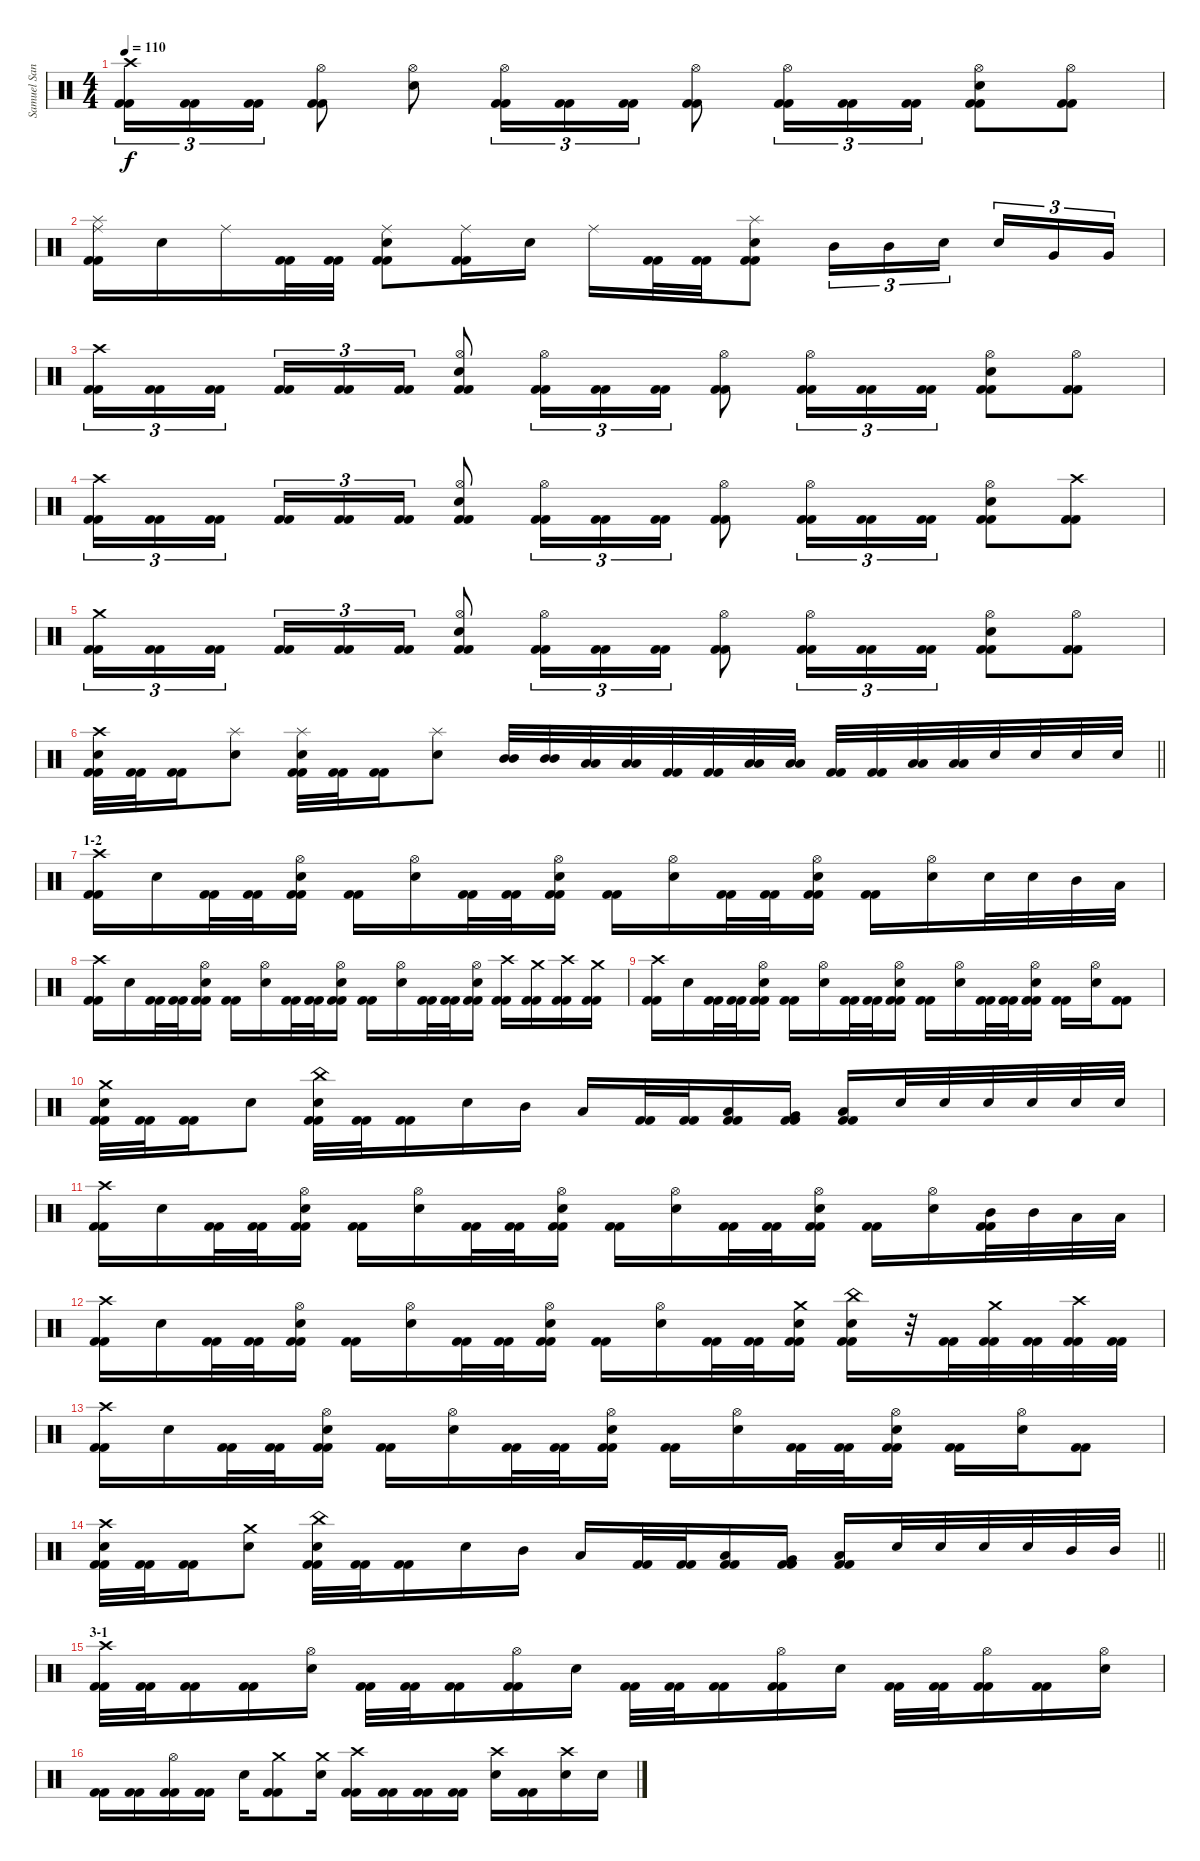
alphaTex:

\track ("Samuel Santiago" "Samuel San") {instrument percussion}
\staff {score}
\articulation defaults
\ts (4 4)
\tempo 110
\clef neutral
\ks c
("Crash high (hit)" "Kick (hit) 2" "Kick (hit) 2").16{tu (3 2) dy f} ("Kick (hit) 2" "Kick (hit) 2").16{tu (3 2)} ("Kick (hit) 2" "Kick (hit) 2").16{tu (3 2)} ("Hi-Hat (open)" "Kick (hit) 2" "Kick (hit) 2").8 ("Hi-Hat (open)" "Electric Snare (hit)").8 ("Hi-Hat (open)" "Kick (hit) 2" "Kick (hit) 2").16{tu (3 2)} ("Kick (hit) 2" "Kick (hit) 2").16{tu (3 2)} ("Kick (hit) 2" "Kick (hit) 2").16{tu (3 2)} ("Hi-Hat (open)" "Kick (hit) 2" "Kick (hit) 2").8 ("Hi-Hat (open)" "Kick (hit) 2" "Kick (hit) 2").16{tu (3 2)} ("Kick (hit) 2" "Kick (hit) 2").16{tu (3 2)} ("Kick (hit) 2" "Kick (hit) 2").16{tu (3 2)} ("Hi-Hat (open)" "Electric Snare (hit)" "Kick (hit) 2" "Kick (hit) 2").8 ("Hi-Hat (open)" "Kick (hit) 2" "Kick (hit) 2").8 |
("Ride (middle)" "Splash (hit)" "Kick (hit) 2" "Kick (hit) 2").16 "Electric Snare (hit)".16 "Ride (middle)".16 ("Kick (hit) 2" "Kick (hit) 2").32 ("Kick (hit) 2" "Kick (hit) 2").32 ("Ride (middle)" "Electric Snare (hit)" "Kick (hit) 2" "Kick (hit) 2").8 ("Ride (middle)" "Kick (hit) 2" "Kick (hit) 2").16 "Electric Snare (hit)".16 "Ride (middle)".16 ("Kick (hit) 2" "Kick (hit) 2").32 ("Kick (hit) 2" "Kick (hit) 2").32 ("Splash (hit)" "Electric Snare (hit)" "Kick (hit) 2" "Kick (hit) 2").8 "Mid Tom (hit)".16{tu (3 2)} "Mid Tom (hit)".16{tu (3 2)} "Electric Snare (hit)".16{tu (3 2) beam splitsecondary} "Electric Snare (hit)".16{tu (3 2)} "Very Low Tom (hit)".16{tu (3 2)} "Very Low Tom (hit)".16{tu (3 2)} |
("Crash high (hit)" "Kick (hit) 2" "Kick (hit) 2").16{tu (3 2)} ("Kick (hit) 2" "Kick (hit) 2").16{tu (3 2)} ("Kick (hit) 2" "Kick (hit) 2").16{tu (3 2) beam splitsecondary} ("Kick (hit) 2" "Kick (hit) 2").16{tu (3 2)} ("Kick (hit) 2" "Kick (hit) 2").16{tu (3 2)} ("Kick (hit) 2" "Kick (hit) 2").16{tu (3 2)} ("Hi-Hat (open)" "Electric Snare (hit)" "Kick (hit) 2" "Kick (hit) 2").8 ("Hi-Hat (open)" "Kick (hit) 2" "Kick (hit) 2").16{tu (3 2)} ("Kick (hit) 2" "Kick (hit) 2").16{tu (3 2)} ("Kick (hit) 2" "Kick (hit) 2").16{tu (3 2)} ("Hi-Hat (open)" "Kick (hit) 2" "Kick (hit) 2").8 ("Hi-Hat (open)" "Kick (hit) 2" "Kick (hit) 2").16{tu (3 2)} ("Kick (hit) 2" "Kick (hit) 2").16{tu (3 2)} ("Kick (hit) 2" "Kick (hit) 2").16{tu (3 2)} ("Hi-Hat (open)" "Electric Snare (hit)" "Kick (hit) 2" "Kick (hit) 2").8 ("Hi-Hat (open)" "Kick (hit) 2" "Kick (hit) 2").8 |
("Crash high (hit)" "Kick (hit) 2" "Kick (hit) 2").16{tu (3 2)} ("Kick (hit) 2" "Kick (hit) 2").16{tu (3 2)} ("Kick (hit) 2" "Kick (hit) 2").16{tu (3 2) beam splitsecondary} ("Kick (hit) 2" "Kick (hit) 2").16{tu (3 2)} ("Kick (hit) 2" "Kick (hit) 2").16{tu (3 2)} ("Kick (hit) 2" "Kick (hit) 2").16{tu (3 2)} ("Hi-Hat (open)" "Electric Snare (hit)" "Kick (hit) 2" "Kick (hit) 2").8 ("Hi-Hat (open)" "Kick (hit) 2" "Kick (hit) 2").16{tu (3 2)} ("Kick (hit) 2" "Kick (hit) 2").16{tu (3 2)} ("Kick (hit) 2" "Kick (hit) 2").16{tu (3 2)} ("Hi-Hat (open)" "Kick (hit) 2" "Kick (hit) 2").8 ("Hi-Hat (open)" "Kick (hit) 2" "Kick (hit) 2").16{tu (3 2)} ("Kick (hit) 2" "Kick (hit) 2").16{tu (3 2)} ("Kick (hit) 2" "Kick (hit) 2").16{tu (3 2)} ("Hi-Hat (open)" "Electric Snare (hit)" "Kick (hit) 2" "Kick (hit) 2").8 ("Crash high (hit)" "Kick (hit) 2" "Kick (hit) 2").8 |
("Crash medium (hit)" "Kick (hit) 2" "Kick (hit) 2").16{tu (3 2)} ("Kick (hit) 2" "Kick (hit) 2").16{tu (3 2)} ("Kick (hit) 2" "Kick (hit) 2").16{tu (3 2) beam splitsecondary} ("Kick (hit) 2" "Kick (hit) 2").16{tu (3 2)} ("Kick (hit) 2" "Kick (hit) 2").16{tu (3 2)} ("Kick (hit) 2" "Kick (hit) 2").16{tu (3 2)} ("Hi-Hat (open)" "Electric Snare (hit)" "Kick (hit) 2" "Kick (hit) 2").8 ("Hi-Hat (open)" "Kick (hit) 2" "Kick (hit) 2").16{tu (3 2)} ("Kick (hit) 2" "Kick (hit) 2").16{tu (3 2)} ("Kick (hit) 2" "Kick (hit) 2").16{tu (3 2)} ("Hi-Hat (open)" "Kick (hit) 2" "Kick (hit) 2").8 ("Hi-Hat (open)" "Kick (hit) 2" "Kick (hit) 2").16{tu (3 2)} ("Kick (hit) 2" "Kick (hit) 2").16{tu (3 2)} ("Kick (hit) 2" "Kick (hit) 2").16{tu (3 2)} ("Hi-Hat (open)" "Electric Snare (hit)" "Kick (hit) 2" "Kick (hit) 2").8 ("Hi-Hat (open)" "Kick (hit) 2" "Kick (hit) 2").8 |
\barLineRight lightlight
("Crash high (hit)" "Electric Snare (hit)" "Kick (hit) 2" "Kick (hit) 2").32 ("Kick (hit) 2" "Kick (hit) 2").32 ("Kick (hit) 2" "Kick (hit) 2").16 ("Splash (hit)" "Electric Snare (hit)").8 ("Splash (hit)" "Electric Snare (hit)" "Kick (hit) 2" "Kick (hit) 2").32 ("Kick (hit) 2" "Kick (hit) 2").32 ("Kick (hit) 2" "Kick (hit) 2").16 ("Splash (hit)" "Electric Snare (hit)").8 ("Mid Tom (hit)" "Mid Tom (hit)").32 ("Mid Tom (hit)" "Mid Tom (hit)").32 ("Low Tom (hit)" "Low Tom (hit)").32 ("Low Tom (hit)" "Low Tom (hit)").32 ("Kick (hit) 2" "Kick (hit) 2").32 ("Kick (hit) 2" "Kick (hit) 2").32 ("Low Tom (hit)" "Low Tom (hit)").32 ("Low Tom (hit)" "Low Tom (hit)").32 ("Kick (hit) 2" "Kick (hit) 2").32 ("Kick (hit) 2" "Kick (hit) 2").32 ("Low Tom (hit)" "Low Tom (hit)").32 ("Low Tom (hit)" "Low Tom (hit)").32 "Electric Snare (hit)".32 "Electric Snare (hit)".32 "Electric Snare (hit)".32 "Electric Snare (hit)".32 |
\section ("" "1-2")
("Crash high (hit)" "Kick (hit) 2" "Kick (hit) 2").16 "Electric Snare (hit)".16 ("Kick (hit) 2" "Kick (hit) 2").32 ("Kick (hit) 2" "Kick (hit) 2").32 ("Hi-Hat (open)" "Electric Snare (hit)" "Kick (hit) 2" "Kick (hit) 2").16 ("Kick (hit) 2" "Kick (hit) 2").16 ("Hi-Hat (open)" "Electric Snare (hit)").16 ("Kick (hit) 2" "Kick (hit) 2").32 ("Kick (hit) 2" "Kick (hit) 2").32 ("Hi-Hat (open)" "Electric Snare (hit)" "Kick (hit) 2" "Kick (hit) 2").16 ("Kick (hit) 2" "Kick (hit) 2").16 ("Hi-Hat (open)" "Electric Snare (hit)").16 ("Kick (hit) 2" "Kick (hit) 2").32 ("Kick (hit) 2" "Kick (hit) 2").32 ("Hi-Hat (open)" "Electric Snare (hit)" "Kick (hit) 2" "Kick (hit) 2").16 ("Kick (hit) 2" "Kick (hit) 2").16 ("Hi-Hat (open)" "Electric Snare (hit)").16 "Electric Snare (hit)".32 "Electric Snare (hit)".32 "Mid Tom (hit)".32 "Low Tom (hit)".32 |
("Crash high (hit)" "Kick (hit) 2" "Kick (hit) 2").16 "Electric Snare (hit)".16 ("Kick (hit) 2" "Kick (hit) 2").32 ("Kick (hit) 2" "Kick (hit) 2").32 ("Hi-Hat (open)" "Electric Snare (hit)" "Kick (hit) 2" "Kick (hit) 2").16 ("Kick (hit) 2" "Kick (hit) 2").16 ("Hi-Hat (open)" "Electric Snare (hit)").16 ("Kick (hit) 2" "Kick (hit) 2").32 ("Kick (hit) 2" "Kick (hit) 2").32 ("Hi-Hat (open)" "Electric Snare (hit)" "Kick (hit) 2" "Kick (hit) 2").16 ("Kick (hit) 2" "Kick (hit) 2").16 ("Hi-Hat (open)" "Electric Snare (hit)").16 ("Kick (hit) 2" "Kick (hit) 2").32 ("Kick (hit) 2" "Kick (hit) 2").32 ("Hi-Hat (open)" "Electric Snare (hit)" "Kick (hit) 2" "Kick (hit) 2").16 ("Crash high (hit)" "Kick (hit) 2" "Kick (hit) 2").16 ("Crash medium (hit)" "Kick (hit) 2" "Kick (hit) 2").16 ("Crash high (hit)" "Kick (hit) 2" "Kick (hit) 2").16 ("Crash medium (hit)" "Kick (hit) 2" "Kick (hit) 2").16 |
("Crash high (hit)" "Kick (hit) 2" "Kick (hit) 2").16 "Electric Snare (hit)".16 ("Kick (hit) 2" "Kick (hit) 2").32 ("Kick (hit) 2" "Kick (hit) 2").32 ("Hi-Hat (open)" "Electric Snare (hit)" "Kick (hit) 2" "Kick (hit) 2").16 ("Kick (hit) 2" "Kick (hit) 2").16 ("Hi-Hat (open)" "Electric Snare (hit)").16 ("Kick (hit) 2" "Kick (hit) 2").32 ("Kick (hit) 2" "Kick (hit) 2").32 ("Hi-Hat (open)" "Electric Snare (hit)" "Kick (hit) 2" "Kick (hit) 2").16 ("Kick (hit) 2" "Kick (hit) 2").16 ("Hi-Hat (open)" "Electric Snare (hit)").16 ("Kick (hit) 2" "Kick (hit) 2").32 ("Kick (hit) 2" "Kick (hit) 2").32 ("Hi-Hat (open)" "Electric Snare (hit)" "Kick (hit) 2" "Kick (hit) 2").16 ("Kick (hit) 2" "Kick (hit) 2").16 ("Hi-Hat (open)" "Electric Snare (hit)").16 ("Kick (hit) 2" "Kick (hit) 2").8 |
("Crash medium (hit)" "Electric Snare (hit)" "Kick (hit) 2" "Kick (hit) 2").32 ("Kick (hit) 2" "Kick (hit) 2").32 ("Kick (hit) 2" "Kick (hit) 2").16 "Electric Snare (hit)".8 ("China (hit)" "Electric Snare (hit)" "Kick (hit) 2" "Kick (hit) 2").32 ("Kick (hit) 2" "Kick (hit) 2").32 ("Kick (hit) 2" "Kick (hit) 2").16 "Electric Snare (hit)".16 "Mid Tom (hit)".16 "Low Tom (hit)".16 ("Kick (hit) 2" "Kick (hit) 2").32 ("Kick (hit) 2" "Kick (hit) 2").32 ("Low Tom (hit)" "Kick (hit) 2" "Kick (hit) 2").16 ("Very Low Tom (hit)" "Kick (hit) 2" "Kick (hit) 2").16 ("Low Floor Tom (hit)" "Kick (hit) 2" "Kick (hit) 2").16 "Electric Snare (hit)".32 "Electric Snare (hit)".32 "Electric Snare (hit)".32 "Electric Snare (hit)".32 "Electric Snare (hit)".32 "Electric Snare (hit)".32 |
("Crash high (hit)" "Kick (hit) 2" "Kick (hit) 2").16 "Electric Snare (hit)".16 ("Kick (hit) 2" "Kick (hit) 2").32 ("Kick (hit) 2" "Kick (hit) 2").32 ("Hi-Hat (open)" "Electric Snare (hit)" "Kick (hit) 2" "Kick (hit) 2").16 ("Kick (hit) 2" "Kick (hit) 2").16 ("Hi-Hat (open)" "Electric Snare (hit)").16 ("Kick (hit) 2" "Kick (hit) 2").32 ("Kick (hit) 2" "Kick (hit) 2").32 ("Hi-Hat (open)" "Electric Snare (hit)" "Kick (hit) 2" "Kick (hit) 2").16 ("Kick (hit) 2" "Kick (hit) 2").16 ("Hi-Hat (open)" "Electric Snare (hit)").16 ("Kick (hit) 2" "Kick (hit) 2").32 ("Kick (hit) 2" "Kick (hit) 2").32 ("Hi-Hat (open)" "Electric Snare (hit)" "Kick (hit) 2" "Kick (hit) 2").16 ("Kick (hit) 2" "Kick (hit) 2").16 ("Hi-Hat (open)" "Electric Snare (hit)").16 ("Mid Tom (hit)" "Kick (hit) 2" "Kick (hit) 2").32 "Mid Tom (hit)".32 "Low Tom (hit)".32 "Low Tom (hit)".32 |
("Crash high (hit)" "Kick (hit) 2" "Kick (hit) 2").16 "Electric Snare (hit)".16 ("Kick (hit) 2" "Kick (hit) 2").32 ("Kick (hit) 2" "Kick (hit) 2").32 ("Hi-Hat (open)" "Electric Snare (hit)" "Kick (hit) 2" "Kick (hit) 2").16 ("Kick (hit) 2" "Kick (hit) 2").16 ("Hi-Hat (open)" "Electric Snare (hit)").16 ("Kick (hit) 2" "Kick (hit) 2").32 ("Kick (hit) 2" "Kick (hit) 2").32 ("Hi-Hat (open)" "Electric Snare (hit)" "Kick (hit) 2" "Kick (hit) 2").16 ("Kick (hit) 2" "Kick (hit) 2").16 ("Hi-Hat (open)" "Electric Snare (hit)").16 ("Kick (hit) 2" "Kick (hit) 2").32 ("Kick (hit) 2" "Kick (hit) 2").32 ("Crash medium (hit)" "Electric Snare (hit)" "Kick (hit) 2" "Kick (hit) 2").16 ("China (hit)" "Electric Snare (hit)" "Kick (hit) 2" "Kick (hit) 2").16 r.32 ("Kick (hit) 2" "Kick (hit) 2").32 ("Crash medium (hit)" "Kick (hit) 2" "Kick (hit) 2").32 ("Kick (hit) 2" "Kick (hit) 2").32 ("Crash high (hit)" "Kick (hit) 2" "Kick (hit) 2").32 ("Kick (hit) 2" "Kick (hit) 2").32 |
("Crash high (hit)" "Kick (hit) 2" "Kick (hit) 2").16 "Electric Snare (hit)".16 ("Kick (hit) 2" "Kick (hit) 2").32 ("Kick (hit) 2" "Kick (hit) 2").32 ("Hi-Hat (open)" "Electric Snare (hit)" "Kick (hit) 2" "Kick (hit) 2").16 ("Kick (hit) 2" "Kick (hit) 2").16 ("Hi-Hat (open)" "Electric Snare (hit)").16 ("Kick (hit) 2" "Kick (hit) 2").32 ("Kick (hit) 2" "Kick (hit) 2").32 ("Hi-Hat (open)" "Electric Snare (hit)" "Kick (hit) 2" "Kick (hit) 2").16 ("Kick (hit) 2" "Kick (hit) 2").16 ("Hi-Hat (open)" "Electric Snare (hit)").16 ("Kick (hit) 2" "Kick (hit) 2").32 ("Kick (hit) 2" "Kick (hit) 2").32 ("Hi-Hat (open)" "Electric Snare (hit)" "Kick (hit) 2" "Kick (hit) 2").16 ("Kick (hit) 2" "Kick (hit) 2").16 ("Hi-Hat (open)" "Electric Snare (hit)").16 ("Kick (hit) 2" "Kick (hit) 2").8 |
\barLineRight lightlight
("Crash high (hit)" "Electric Snare (hit)" "Kick (hit) 2" "Kick (hit) 2").32 ("Kick (hit) 2" "Kick (hit) 2").32 ("Kick (hit) 2" "Kick (hit) 2").16 ("Crash medium (hit)" "Electric Snare (hit)").8 ("China (hit)" "Electric Snare (hit)" "Kick (hit) 2" "Kick (hit) 2").32 ("Kick (hit) 2" "Kick (hit) 2").32 ("Kick (hit) 2" "Kick (hit) 2").16 "Electric Snare (hit)".16 "Mid Tom (hit)".16 "Low Tom (hit)".16 ("Kick (hit) 2" "Kick (hit) 2").32 ("Kick (hit) 2" "Kick (hit) 2").32 ("Low Tom (hit)" "Kick (hit) 2" "Kick (hit) 2").16 ("Very Low Tom (hit)" "Kick (hit) 2" "Kick (hit) 2").16 ("Low Floor Tom (hit)" "Kick (hit) 2" "Kick (hit) 2").16 "Electric Snare (hit)".32 "Electric Snare (hit)".32 "Electric Snare (hit)".32 "Electric Snare (hit)".32 "Mid Tom (hit)".32 "Mid Tom (hit)".32 |
\section ("" "3-1")
("Crash high (hit)" "Kick (hit) 2" "Kick (hit) 2").32 ("Kick (hit) 2" "Kick (hit) 2").32 ("Kick (hit) 2" "Kick (hit) 2").16 ("Kick (hit) 2" "Kick (hit) 2").16 ("Hi-Hat (open)" "Electric Snare (hit)").16 ("Kick (hit) 2" "Kick (hit) 2").32 ("Kick (hit) 2" "Kick (hit) 2").32 ("Kick (hit) 2" "Kick (hit) 2").16 ("Hi-Hat (open)" "Kick (hit) 2" "Kick (hit) 2").16 "Electric Snare (hit)".16 ("Kick (hit) 2" "Kick (hit) 2").32 ("Kick (hit) 2" "Kick (hit) 2").32 ("Kick (hit) 2" "Kick (hit) 2").16 ("Hi-Hat (open)" "Kick (hit) 2" "Kick (hit) 2").16 "Electric Snare (hit)".16 ("Kick (hit) 2" "Kick (hit) 2").32 ("Kick (hit) 2" "Kick (hit) 2").32 ("Hi-Hat (open)" "Kick (hit) 2" "Kick (hit) 2").16 ("Kick (hit) 2" "Kick (hit) 2").16 ("Hi-Hat (open)" "Electric Snare (hit)").16 |
("Kick (hit) 2" "Kick (hit) 2").16 ("Kick (hit) 2" "Kick (hit) 2").16 ("Hi-Hat (open)" "Kick (hit) 2" "Kick (hit) 2").16 ("Kick (hit) 2" "Kick (hit) 2").16 "Electric Snare (hit)".16 ("Crash medium (hit)" "Kick (hit) 2" "Kick (hit) 2").8 ("Crash medium (hit)" "Electric Snare (hit)").16 ("Crash high (hit)" "Kick (hit) 2" "Kick (hit) 2").16 ("Kick (hit) 2" "Kick (hit) 2").16 ("Kick (hit) 2" "Kick (hit) 2").16 ("Kick (hit) 2" "Kick (hit) 2").16 ("Crash high (hit)" "Electric Snare (hit)").16 ("Kick (hit) 2" "Kick (hit) 2").16 ("Crash high (hit)" "Electric Snare (hit)").16 "Electric Snare (hit)".16
